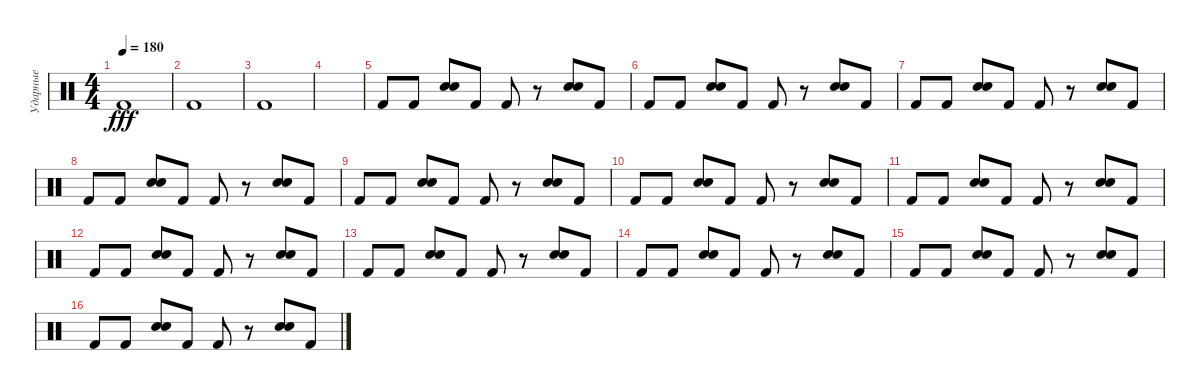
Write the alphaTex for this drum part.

\track ("Ударные" "Ударные") {instrument percussion}
\staff {score}
\articulation defaults
\ts (4 4)
\tempo 180
\clef neutral
\ks c "Kick (hit) 2".1{dy fff}
|
"Kick (hit) 2".1 |
"Kick (hit) 2".1 |
|
"Kick (hit) 2".8 "Kick (hit) 2".8 ("Electric Snare (hit)" "Snare (hit) 2").8 "Kick (hit) 2".8 "Kick (hit) 2".8 r.8 ("Electric Snare (hit)" "Snare (hit) 2").8 "Kick (hit) 2".8 |
"Kick (hit) 2".8 "Kick (hit) 2".8 ("Electric Snare (hit)" "Snare (hit) 2").8 "Kick (hit) 2".8 "Kick (hit) 2".8 r.8 ("Electric Snare (hit)" "Snare (hit) 2").8 "Kick (hit) 2".8 |
"Kick (hit) 2".8 "Kick (hit) 2".8 ("Electric Snare (hit)" "Snare (hit) 2").8 "Kick (hit) 2".8 "Kick (hit) 2".8 r.8 ("Electric Snare (hit)" "Snare (hit) 2").8 "Kick (hit) 2".8 |
"Kick (hit) 2".8 "Kick (hit) 2".8 ("Electric Snare (hit)" "Snare (hit) 2").8 "Kick (hit) 2".8 "Kick (hit) 2".8 r.8 ("Electric Snare (hit)" "Snare (hit) 2").8 "Kick (hit) 2".8 |
"Kick (hit) 2".8 "Kick (hit) 2".8 ("Electric Snare (hit)" "Snare (hit) 2").8 "Kick (hit) 2".8 "Kick (hit) 2".8 r.8 ("Electric Snare (hit)" "Snare (hit) 2").8 "Kick (hit) 2".8 |
"Kick (hit) 2".8 "Kick (hit) 2".8 ("Electric Snare (hit)" "Snare (hit) 2").8 "Kick (hit) 2".8 "Kick (hit) 2".8 r.8 ("Electric Snare (hit)" "Snare (hit) 2").8 "Kick (hit) 2".8 |
"Kick (hit) 2".8 "Kick (hit) 2".8 ("Electric Snare (hit)" "Snare (hit) 2").8 "Kick (hit) 2".8 "Kick (hit) 2".8 r.8 ("Electric Snare (hit)" "Snare (hit) 2").8 "Kick (hit) 2".8 |
"Kick (hit) 2".8 "Kick (hit) 2".8 ("Electric Snare (hit)" "Snare (hit) 2").8 "Kick (hit) 2".8 "Kick (hit) 2".8 r.8 ("Electric Snare (hit)" "Snare (hit) 2").8 "Kick (hit) 2".8 |
"Kick (hit) 2".8 "Kick (hit) 2".8 ("Electric Snare (hit)" "Snare (hit) 2").8 "Kick (hit) 2".8 "Kick (hit) 2".8 r.8 ("Electric Snare (hit)" "Snare (hit) 2").8 "Kick (hit) 2".8 |
"Kick (hit) 2".8 "Kick (hit) 2".8 ("Electric Snare (hit)" "Snare (hit) 2").8 "Kick (hit) 2".8 "Kick (hit) 2".8 r.8 ("Electric Snare (hit)" "Snare (hit) 2").8 "Kick (hit) 2".8 |
"Kick (hit) 2".8 "Kick (hit) 2".8 ("Electric Snare (hit)" "Snare (hit) 2").8 "Kick (hit) 2".8 "Kick (hit) 2".8 r.8 ("Electric Snare (hit)" "Snare (hit) 2").8 "Kick (hit) 2".8 |
"Kick (hit) 2".8 "Kick (hit) 2".8 ("Electric Snare (hit)" "Snare (hit) 2").8 "Kick (hit) 2".8 "Kick (hit) 2".8 r.8 ("Electric Snare (hit)" "Snare (hit) 2").8 "Kick (hit) 2".8
